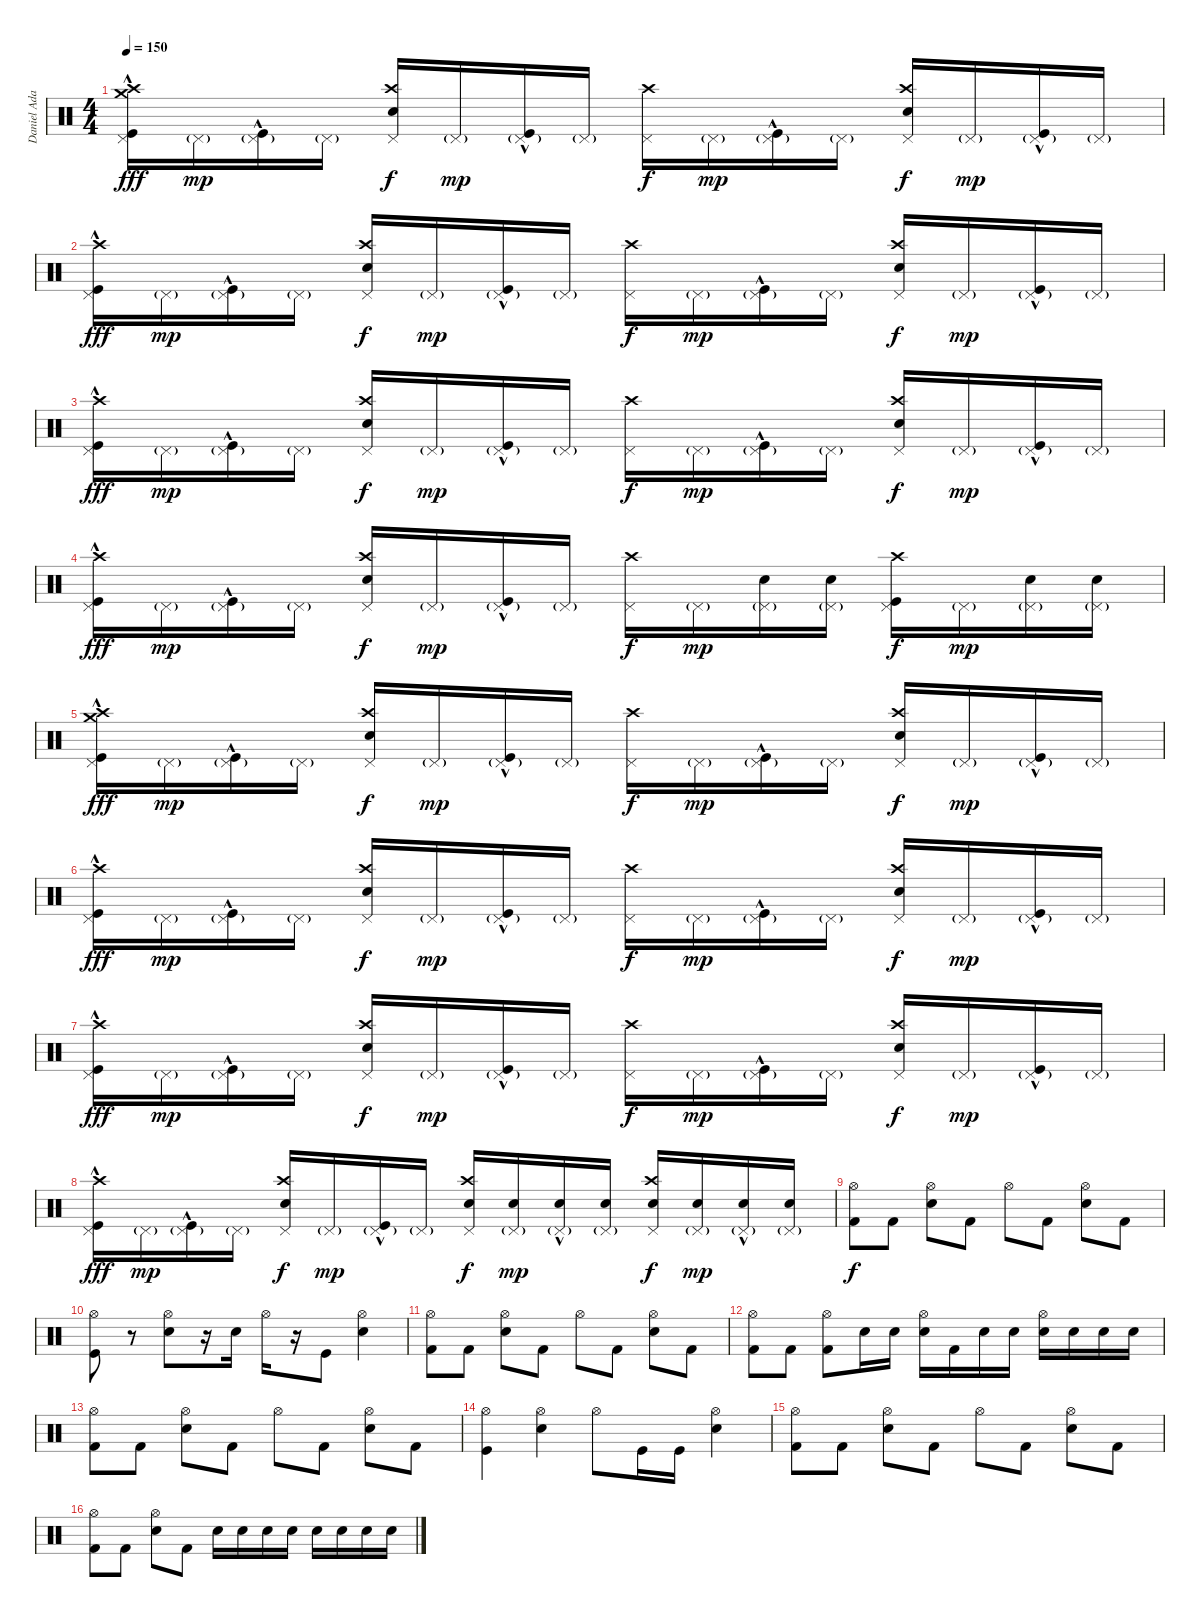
\track ("Daniel Adair" "Daniel Ada") {instrument percussion}
\staff {score}
\articulation defaults
\ts (4 4)
\tempo 150
\clef neutral
\ks c
("Kick (hit)"{hac} "Pedal Hi-Hat (hit)" "Crash high (hit)" "Crash medium (hit)").16{dy fff} "Pedal Hi-Hat (hit)"{g}.16{dy mp} ("Kick (hit)"{hac} "Pedal Hi-Hat (hit)"{g}).16 "Pedal Hi-Hat (hit)"{g}.16 ("Electric Snare (hit)" "Pedal Hi-Hat (hit)" "Crash high (hit)").16{dy f} "Pedal Hi-Hat (hit)"{g}.16{dy mp} ("Kick (hit)"{hac} "Pedal Hi-Hat (hit)"{g}).16 "Pedal Hi-Hat (hit)"{g}.16 ("Pedal Hi-Hat (hit)" "Crash high (hit)").16{dy f} "Pedal Hi-Hat (hit)"{g}.16{dy mp} ("Kick (hit)"{hac} "Pedal Hi-Hat (hit)"{g}).16 "Pedal Hi-Hat (hit)"{g}.16 ("Electric Snare (hit)" "Pedal Hi-Hat (hit)" "Crash high (hit)").16{dy f} "Pedal Hi-Hat (hit)"{g}.16{dy mp} ("Kick (hit)"{hac} "Pedal Hi-Hat (hit)"{g}).16 "Pedal Hi-Hat (hit)"{g}.16 |
("Kick (hit)"{hac} "Pedal Hi-Hat (hit)" "Crash high (hit)").16{dy fff} "Pedal Hi-Hat (hit)"{g}.16{dy mp} ("Kick (hit)"{hac} "Pedal Hi-Hat (hit)"{g}).16 "Pedal Hi-Hat (hit)"{g}.16 ("Electric Snare (hit)" "Pedal Hi-Hat (hit)" "Crash high (hit)").16{dy f} "Pedal Hi-Hat (hit)"{g}.16{dy mp} ("Kick (hit)"{hac} "Pedal Hi-Hat (hit)"{g}).16 "Pedal Hi-Hat (hit)"{g}.16 ("Pedal Hi-Hat (hit)" "Crash high (hit)").16{dy f} "Pedal Hi-Hat (hit)"{g}.16{dy mp} ("Kick (hit)"{hac} "Pedal Hi-Hat (hit)"{g}).16 "Pedal Hi-Hat (hit)"{g}.16 ("Electric Snare (hit)" "Pedal Hi-Hat (hit)" "Crash high (hit)").16{dy f} "Pedal Hi-Hat (hit)"{g}.16{dy mp} ("Kick (hit)"{hac} "Pedal Hi-Hat (hit)"{g}).16 "Pedal Hi-Hat (hit)"{g}.16 |
("Kick (hit)"{hac} "Pedal Hi-Hat (hit)" "Crash high (hit)").16{dy fff} "Pedal Hi-Hat (hit)"{g}.16{dy mp} ("Kick (hit)"{hac} "Pedal Hi-Hat (hit)"{g}).16 "Pedal Hi-Hat (hit)"{g}.16 ("Electric Snare (hit)" "Pedal Hi-Hat (hit)" "Crash high (hit)").16{dy f} "Pedal Hi-Hat (hit)"{g}.16{dy mp} ("Kick (hit)"{hac} "Pedal Hi-Hat (hit)"{g}).16 "Pedal Hi-Hat (hit)"{g}.16 ("Pedal Hi-Hat (hit)" "Crash high (hit)").16{dy f} "Pedal Hi-Hat (hit)"{g}.16{dy mp} ("Kick (hit)"{hac} "Pedal Hi-Hat (hit)"{g}).16 "Pedal Hi-Hat (hit)"{g}.16 ("Electric Snare (hit)" "Pedal Hi-Hat (hit)" "Crash high (hit)").16{dy f} "Pedal Hi-Hat (hit)"{g}.16{dy mp} ("Kick (hit)"{hac} "Pedal Hi-Hat (hit)"{g}).16 "Pedal Hi-Hat (hit)"{g}.16 |
("Kick (hit)"{hac} "Pedal Hi-Hat (hit)" "Crash high (hit)").16{dy fff} "Pedal Hi-Hat (hit)"{g}.16{dy mp} ("Kick (hit)"{hac} "Pedal Hi-Hat (hit)"{g}).16 "Pedal Hi-Hat (hit)"{g}.16 ("Electric Snare (hit)" "Pedal Hi-Hat (hit)" "Crash high (hit)").16{dy f} "Pedal Hi-Hat (hit)"{g}.16{dy mp} ("Kick (hit)"{hac} "Pedal Hi-Hat (hit)"{g}).16 "Pedal Hi-Hat (hit)"{g}.16 ("Pedal Hi-Hat (hit)" "Crash high (hit)").16{dy f} "Pedal Hi-Hat (hit)"{g}.16{dy mp} ("Electric Snare (hit)" "Pedal Hi-Hat (hit)"{g}).16 ("Electric Snare (hit)" "Pedal Hi-Hat (hit)"{g}).16 ("Kick (hit)" "Pedal Hi-Hat (hit)" "Crash high (hit)").16{dy f} "Pedal Hi-Hat (hit)"{g}.16{dy mp} ("Electric Snare (hit)" "Pedal Hi-Hat (hit)"{g}).16 ("Electric Snare (hit)" "Pedal Hi-Hat (hit)"{g}).16 |
("Kick (hit)"{hac} "Pedal Hi-Hat (hit)" "Crash high (hit)" "Crash medium (hit)").16{dy fff} "Pedal Hi-Hat (hit)"{g}.16{dy mp} ("Kick (hit)"{hac} "Pedal Hi-Hat (hit)"{g}).16 "Pedal Hi-Hat (hit)"{g}.16 ("Electric Snare (hit)" "Pedal Hi-Hat (hit)" "Crash high (hit)").16{dy f} "Pedal Hi-Hat (hit)"{g}.16{dy mp} ("Kick (hit)"{hac} "Pedal Hi-Hat (hit)"{g}).16 "Pedal Hi-Hat (hit)"{g}.16 ("Pedal Hi-Hat (hit)" "Crash high (hit)").16{dy f} "Pedal Hi-Hat (hit)"{g}.16{dy mp} ("Kick (hit)"{hac} "Pedal Hi-Hat (hit)"{g}).16 "Pedal Hi-Hat (hit)"{g}.16 ("Electric Snare (hit)" "Pedal Hi-Hat (hit)" "Crash high (hit)").16{dy f} "Pedal Hi-Hat (hit)"{g}.16{dy mp} ("Kick (hit)"{hac} "Pedal Hi-Hat (hit)"{g}).16 "Pedal Hi-Hat (hit)"{g}.16 |
("Kick (hit)"{hac} "Pedal Hi-Hat (hit)" "Crash high (hit)").16{dy fff} "Pedal Hi-Hat (hit)"{g}.16{dy mp} ("Kick (hit)"{hac} "Pedal Hi-Hat (hit)"{g}).16 "Pedal Hi-Hat (hit)"{g}.16 ("Electric Snare (hit)" "Pedal Hi-Hat (hit)" "Crash high (hit)").16{dy f} "Pedal Hi-Hat (hit)"{g}.16{dy mp} ("Kick (hit)"{hac} "Pedal Hi-Hat (hit)"{g}).16 "Pedal Hi-Hat (hit)"{g}.16 ("Pedal Hi-Hat (hit)" "Crash high (hit)").16{dy f} "Pedal Hi-Hat (hit)"{g}.16{dy mp} ("Kick (hit)"{hac} "Pedal Hi-Hat (hit)"{g}).16 "Pedal Hi-Hat (hit)"{g}.16 ("Electric Snare (hit)" "Pedal Hi-Hat (hit)" "Crash high (hit)").16{dy f} "Pedal Hi-Hat (hit)"{g}.16{dy mp} ("Kick (hit)"{hac} "Pedal Hi-Hat (hit)"{g}).16 "Pedal Hi-Hat (hit)"{g}.16 |
("Kick (hit)"{hac} "Pedal Hi-Hat (hit)" "Crash high (hit)").16{dy fff} "Pedal Hi-Hat (hit)"{g}.16{dy mp} ("Kick (hit)"{hac} "Pedal Hi-Hat (hit)"{g}).16 "Pedal Hi-Hat (hit)"{g}.16 ("Electric Snare (hit)" "Pedal Hi-Hat (hit)" "Crash high (hit)").16{dy f} "Pedal Hi-Hat (hit)"{g}.16{dy mp} ("Kick (hit)"{hac} "Pedal Hi-Hat (hit)"{g}).16 "Pedal Hi-Hat (hit)"{g}.16 ("Pedal Hi-Hat (hit)" "Crash high (hit)").16{dy f} "Pedal Hi-Hat (hit)"{g}.16{dy mp} ("Kick (hit)"{hac} "Pedal Hi-Hat (hit)"{g}).16 "Pedal Hi-Hat (hit)"{g}.16 ("Electric Snare (hit)" "Pedal Hi-Hat (hit)" "Crash high (hit)").16{dy f} "Pedal Hi-Hat (hit)"{g}.16{dy mp} ("Kick (hit)"{hac} "Pedal Hi-Hat (hit)"{g}).16 "Pedal Hi-Hat (hit)"{g}.16 |
("Kick (hit)"{hac} "Pedal Hi-Hat (hit)" "Crash high (hit)").16{dy fff} "Pedal Hi-Hat (hit)"{g}.16{dy mp} ("Kick (hit)"{hac} "Pedal Hi-Hat (hit)"{g}).16 "Pedal Hi-Hat (hit)"{g}.16 ("Electric Snare (hit)" "Pedal Hi-Hat (hit)" "Crash high (hit)").16{dy f} "Pedal Hi-Hat (hit)"{g}.16{dy mp} ("Kick (hit)"{hac} "Pedal Hi-Hat (hit)"{g}).16 "Pedal Hi-Hat (hit)"{g}.16 ("Electric Snare (hit)" "Pedal Hi-Hat (hit)" "Crash high (hit)").16{dy f} ("Electric Snare (hit)" "Pedal Hi-Hat (hit)"{g}).16{dy mp} ("Electric Snare (hit)"{hac} "Pedal Hi-Hat (hit)"{g}).16 ("Electric Snare (hit)" "Pedal Hi-Hat (hit)"{g}).16 ("Electric Snare (hit)" "Pedal Hi-Hat (hit)" "Crash high (hit)").16{dy f} ("Electric Snare (hit)" "Pedal Hi-Hat (hit)"{g}).16{dy mp} ("Electric Snare (hit)"{hac} "Pedal Hi-Hat (hit)"{g}).16 ("Electric Snare (hit)" "Pedal Hi-Hat (hit)"{g}).16 |
("Kick (hit) 2" "Hi-Hat (open)").8{dy f} "Kick (hit) 2".8 ("Electric Snare (hit)" "Hi-Hat (open)").8 "Kick (hit) 2".8 "Hi-Hat (open)".8 "Kick (hit) 2".8 ("Electric Snare (hit)" "Hi-Hat (open)").8 "Kick (hit) 2".8 |
("Kick (hit)" "Hi-Hat (open)").8 r.8 ("Electric Snare (hit)" "Hi-Hat (open)").8 r.16 "Electric Snare (hit)".16 "Hi-Hat (open)".16 r.16 "Kick (hit)".8 ("Electric Snare (hit)" "Hi-Hat (open)").4 |
("Kick (hit) 2" "Hi-Hat (open)").8 "Kick (hit) 2".8 ("Electric Snare (hit)" "Hi-Hat (open)").8 "Kick (hit) 2".8 "Hi-Hat (open)".8 "Kick (hit) 2".8 ("Electric Snare (hit)" "Hi-Hat (open)").8 "Kick (hit) 2".8 |
("Kick (hit) 2" "Hi-Hat (open)").8 "Kick (hit) 2".8 ("Kick (hit) 2" "Hi-Hat (open)").8 "Electric Snare (hit)".16 "Electric Snare (hit)".16 ("Electric Snare (hit)" "Hi-Hat (open)").16 "Kick (hit) 2".16 "Electric Snare (hit)".16 "Electric Snare (hit)".16 ("Electric Snare (hit)" "Hi-Hat (open)").16 "Electric Snare (hit)".16 "Electric Snare (hit)".16 "Electric Snare (hit)".16 |
("Kick (hit) 2" "Hi-Hat (open)").8 "Kick (hit) 2".8 ("Electric Snare (hit)" "Hi-Hat (open)").8 "Kick (hit) 2".8 "Hi-Hat (open)".8 "Kick (hit) 2".8 ("Electric Snare (hit)" "Hi-Hat (open)").8 "Kick (hit) 2".8 |
("Kick (hit)" "Hi-Hat (open)").4 ("Electric Snare (hit)" "Hi-Hat (open)").4 "Hi-Hat (open)".8 "Kick (hit)".16 "Kick (hit)".16 ("Electric Snare (hit)" "Hi-Hat (open)").4 |
("Kick (hit) 2" "Hi-Hat (open)").8 "Kick (hit) 2".8 ("Electric Snare (hit)" "Hi-Hat (open)").8 "Kick (hit) 2".8 "Hi-Hat (open)".8 "Kick (hit) 2".8 ("Electric Snare (hit)" "Hi-Hat (open)").8 "Kick (hit) 2".8 |
("Kick (hit) 2" "Hi-Hat (open)").8 "Kick (hit) 2".8 ("Electric Snare (hit)" "Hi-Hat (open)").8 "Kick (hit) 2".8 "Electric Snare (hit)".16 "Electric Snare (hit)".16 "Electric Snare (hit)".16 "Electric Snare (hit)".16 "Electric Snare (hit)".16 "Electric Snare (hit)".16 "Electric Snare (hit)".16 "Electric Snare (hit)".16
